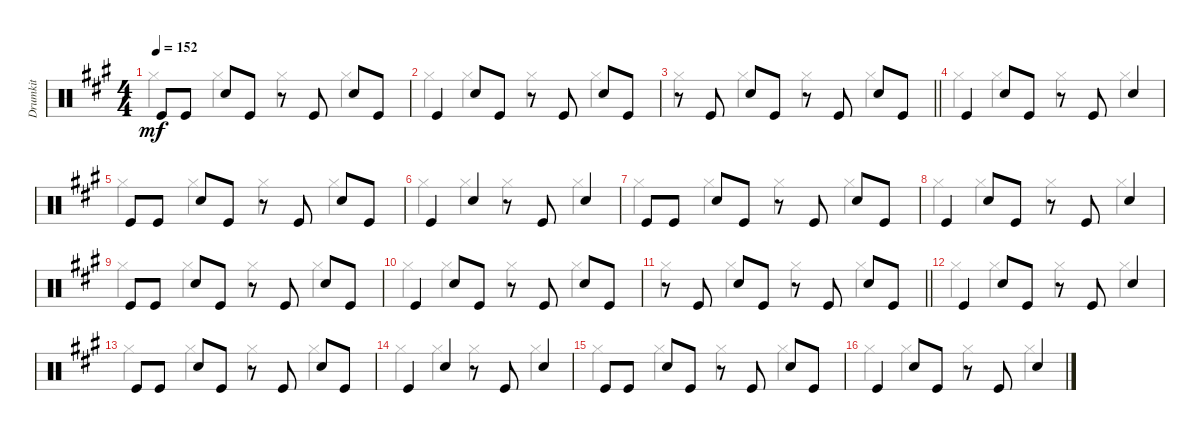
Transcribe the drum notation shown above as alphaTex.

\track ("Drumkit" "Drumkit") {instrument percussion}
\staff {score}
\articulation defaults
\voice
\ts (4 4)
\tempo 152
\clef neutral
\ks a "Kick (hit)".8{dy mf} "Kick (hit)".8 "Snare (hit) 2".8 "Kick (hit)".8
r.8 "Kick (hit)".8 "Snare (hit) 2".8 "Kick (hit)".8 |
"Kick (hit)".4 "Snare (hit) 2".8 "Kick (hit)".8 r.8 "Kick (hit)".8 "Snare (hit) 2".8 "Kick (hit)".8 |
\barLineRight lightlight
r.8 "Kick (hit)".8 "Snare (hit) 2".8 "Kick (hit)".8 r.8 "Kick (hit)".8 "Snare (hit) 2".8 "Kick (hit)".8 |
"Kick (hit)".4 "Snare (hit) 2".8 "Kick (hit)".8 r.8 "Kick (hit)".8 "Snare (hit) 2".4 |
"Kick (hit)".8 "Kick (hit)".8 "Snare (hit) 2".8 "Kick (hit)".8 r.8 "Kick (hit)".8 "Snare (hit) 2".8 "Kick (hit)".8 |
"Kick (hit)".4 "Snare (hit) 2".4 r.8 "Kick (hit)".8 "Snare (hit) 2".4 |
"Kick (hit)".8 "Kick (hit)".8 "Snare (hit) 2".8 "Kick (hit)".8 r.8 "Kick (hit)".8 "Snare (hit) 2".8 "Kick (hit)".8 |
"Kick (hit)".4 "Snare (hit) 2".8 "Kick (hit)".8 r.8 "Kick (hit)".8 "Snare (hit) 2".4 |
"Kick (hit)".8 "Kick (hit)".8 "Snare (hit) 2".8 "Kick (hit)".8 r.8 "Kick (hit)".8 "Snare (hit) 2".8 "Kick (hit)".8 |
"Kick (hit)".4 "Snare (hit) 2".8 "Kick (hit)".8 r.8 "Kick (hit)".8 "Snare (hit) 2".8 "Kick (hit)".8 |
\barLineRight lightlight
r.8 "Kick (hit)".8 "Snare (hit) 2".8 "Kick (hit)".8 r.8 "Kick (hit)".8 "Snare (hit) 2".8 "Kick (hit)".8 |
"Kick (hit)".4 "Snare (hit) 2".8 "Kick (hit)".8 r.8 "Kick (hit)".8 "Snare (hit) 2".4 |
"Kick (hit)".8 "Kick (hit)".8 "Snare (hit) 2".8 "Kick (hit)".8 r.8 "Kick (hit)".8 "Snare (hit) 2".8 "Kick (hit)".8 |
"Kick (hit)".4 "Snare (hit) 2".4 r.8 "Kick (hit)".8 "Snare (hit) 2".4 |
"Kick (hit)".8 "Kick (hit)".8 "Snare (hit) 2".8 "Kick (hit)".8 r.8 "Kick (hit)".8 "Snare (hit) 2".8 "Kick (hit)".8 |
"Kick (hit)".4 "Snare (hit) 2".8 "Kick (hit)".8 r.8 "Kick (hit)".8 "Snare (hit) 2".4
\voice
\clef neutral
\ottava regular
\simile none
\ks a "Hi-Hat (closed)".4{dy mf} "Hi-Hat (closed)".4 "Hi-Hat (closed)".4 "Hi-Hat (closed)".4
|
"Hi-Hat (closed)".4 "Hi-Hat (closed)".4 "Hi-Hat (closed)".4 "Hi-Hat (closed)".4 |
\barLineRight lightlight "Hi-Hat (closed)".4 "Hi-Hat (closed)".4 "Hi-Hat (closed)".4 "Hi-Hat (closed)".4
|
"Hi-Hat (closed)".4 "Hi-Hat (closed)".4 "Hi-Hat (closed)".4 "Hi-Hat (closed)".4 |
"Hi-Hat (closed)".4 "Hi-Hat (closed)".4 "Hi-Hat (closed)".4 "Hi-Hat (closed)".4 |
"Hi-Hat (closed)".4 "Hi-Hat (closed)".4 "Hi-Hat (closed)".4 "Hi-Hat (closed)".4 |
"Hi-Hat (closed)".4 "Hi-Hat (closed)".4 "Hi-Hat (closed)".4 "Hi-Hat (closed)".4 |
"Hi-Hat (closed)".4 "Hi-Hat (closed)".4 "Hi-Hat (closed)".4 "Hi-Hat (closed)".4 |
"Hi-Hat (closed)".4 "Hi-Hat (closed)".4 "Hi-Hat (closed)".4 "Hi-Hat (closed)".4 |
"Hi-Hat (closed)".4 "Hi-Hat (closed)".4 "Hi-Hat (closed)".4 "Hi-Hat (closed)".4 |
\barLineRight lightlight "Hi-Hat (closed)".4 "Hi-Hat (closed)".4 "Hi-Hat (closed)".4 "Hi-Hat (closed)".4
|
"Hi-Hat (closed)".4 "Hi-Hat (closed)".4 "Hi-Hat (closed)".4 "Hi-Hat (closed)".4 |
"Hi-Hat (closed)".4 "Hi-Hat (closed)".4 "Hi-Hat (closed)".4 "Hi-Hat (closed)".4 |
"Hi-Hat (closed)".4 "Hi-Hat (closed)".4 "Hi-Hat (closed)".4 "Hi-Hat (closed)".4 |
"Hi-Hat (closed)".4 "Hi-Hat (closed)".4 "Hi-Hat (closed)".4 "Hi-Hat (closed)".4 |
"Hi-Hat (closed)".4 "Hi-Hat (closed)".4 "Hi-Hat (closed)".4 "Hi-Hat (closed)".4
